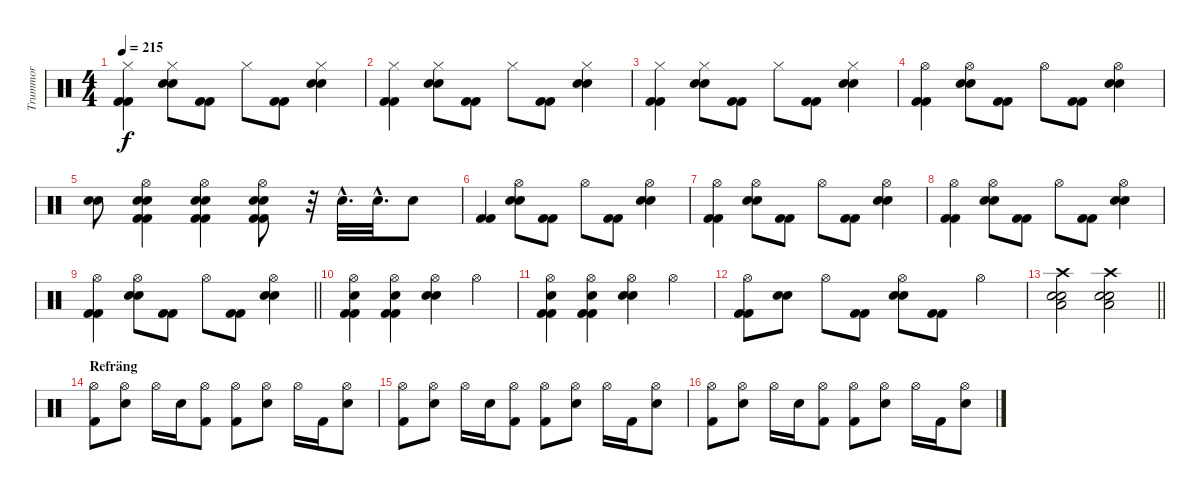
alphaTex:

\track ("Trummor" "Trummor") {instrument percussion}
\staff {score}
\articulation defaults
\ts (4 4)
\tempo 215
\clef neutral
\ks c
("Hi-Hat (closed)" "Kick (hit) 2" "Kick (hit) 2").4{dy f} ("Hi-Hat (closed)" "Electric Snare (hit)" "Electric Snare (hit)").8 ("Kick (hit) 2" "Kick (hit) 2").8 "Hi-Hat (closed)".8 ("Kick (hit) 2" "Kick (hit) 2").8 ("Hi-Hat (closed)" "Electric Snare (hit)" "Electric Snare (hit)").4 |
("Hi-Hat (closed)" "Kick (hit) 2" "Kick (hit) 2").4 ("Hi-Hat (closed)" "Electric Snare (hit)" "Electric Snare (hit)").8 ("Kick (hit) 2" "Kick (hit) 2").8 "Hi-Hat (closed)".8 ("Kick (hit) 2" "Kick (hit) 2").8 ("Hi-Hat (closed)" "Electric Snare (hit)" "Electric Snare (hit)").4 |
("Hi-Hat (closed)" "Kick (hit) 2" "Kick (hit) 2").4 ("Hi-Hat (closed)" "Electric Snare (hit)" "Electric Snare (hit)").8 ("Kick (hit) 2" "Kick (hit) 2").8 "Hi-Hat (closed)".8 ("Kick (hit) 2" "Kick (hit) 2").8 ("Hi-Hat (closed)" "Electric Snare (hit)" "Electric Snare (hit)").4 |
("Hi-Hat (open)" "Kick (hit) 2" "Kick (hit) 2").4 ("Hi-Hat (open)" "Electric Snare (hit)" "Electric Snare (hit)").8 ("Kick (hit) 2" "Kick (hit) 2").8 "Hi-Hat (open)".8 ("Kick (hit) 2" "Kick (hit) 2").8 ("Hi-Hat (open)" "Electric Snare (hit)" "Electric Snare (hit)").4 |
("Electric Snare (hit)" "Electric Snare (hit)").8 ("Hi-Hat (open)" "Electric Snare (hit)" "Electric Snare (hit)" "Kick (hit) 2" "Kick (hit) 2").4 ("Hi-Hat (open)" "Electric Snare (hit)" "Electric Snare (hit)" "Kick (hit) 2" "Kick (hit) 2").4 ("Hi-Hat (open)" "Electric Snare (hit)" "Electric Snare (hit)" "Kick (hit) 2" "Kick (hit) 2").8 r.32 "Electric Snare (hit)"{hac}.32{d} "Electric Snare (hit)"{hac}.32{d} "Electric Snare (hit)".8 |
("Kick (hit) 2" "Kick (hit) 2").4 ("Hi-Hat (open)" "Electric Snare (hit)" "Electric Snare (hit)").8 ("Kick (hit) 2" "Kick (hit) 2").8 "Hi-Hat (open)".8 ("Kick (hit) 2" "Kick (hit) 2").8 ("Hi-Hat (open)" "Electric Snare (hit)" "Electric Snare (hit)").4 |
("Hi-Hat (open)" "Kick (hit) 2" "Kick (hit) 2").4 ("Hi-Hat (open)" "Electric Snare (hit)" "Electric Snare (hit)").8 ("Kick (hit) 2" "Kick (hit) 2").8 "Hi-Hat (open)".8 ("Kick (hit) 2" "Kick (hit) 2").8 ("Hi-Hat (open)" "Electric Snare (hit)" "Electric Snare (hit)").4 |
("Hi-Hat (open)" "Kick (hit) 2" "Kick (hit) 2").4 ("Hi-Hat (open)" "Electric Snare (hit)" "Electric Snare (hit)").8 ("Kick (hit) 2" "Kick (hit) 2").8 "Hi-Hat (open)".8 ("Kick (hit) 2" "Kick (hit) 2").8 ("Hi-Hat (open)" "Electric Snare (hit)" "Electric Snare (hit)").4 |
\barLineRight lightlight
("Hi-Hat (open)" "Kick (hit) 2" "Kick (hit) 2").4 ("Hi-Hat (open)" "Electric Snare (hit)" "Electric Snare (hit)").8 ("Kick (hit) 2" "Kick (hit) 2").8 "Hi-Hat (open)".8 ("Kick (hit) 2" "Kick (hit) 2").8 ("Hi-Hat (open)" "Electric Snare (hit)" "Electric Snare (hit)").4 |
("Hi-Hat (open)" "Electric Snare (hit)" "Kick (hit) 2" "Kick (hit) 2").4 ("Hi-Hat (open)" "Electric Snare (hit)" "Kick (hit) 2" "Kick (hit) 2").4 ("Hi-Hat (open)" "Electric Snare (hit)" "Electric Snare (hit)").4 "Hi-Hat (open)".4 |
("Hi-Hat (open)" "Electric Snare (hit)" "Kick (hit) 2" "Kick (hit) 2").4 ("Hi-Hat (open)" "Electric Snare (hit)" "Kick (hit) 2" "Kick (hit) 2").4 ("Hi-Hat (open)" "Electric Snare (hit)" "Electric Snare (hit)").4 "Hi-Hat (open)".4 |
("Hi-Hat (open)" "Kick (hit) 2" "Kick (hit) 2").8 ("Electric Snare (hit)" "Electric Snare (hit)").8 "Hi-Hat (open)".8 ("Kick (hit) 2" "Kick (hit) 2").8 ("Hi-Hat (open)" "Electric Snare (hit)" "Electric Snare (hit)").8 ("Kick (hit) 2" "Kick (hit) 2").8 "Hi-Hat (open)".4 |
\barLineRight lightlight
("Low Tom (hit)" "Electric Snare (hit)" "Electric Snare (hit)" "Crash high (hit)").2 ("Low Tom (hit)" "Electric Snare (hit)" "Electric Snare (hit)" "Crash high (hit)").2 |
\section ("" "Refräng")
("Hi-Hat (open)" "Kick (hit) 2").8 ("Hi-Hat (open)" "Electric Snare (hit)").8 "Hi-Hat (open)".16 "Electric Snare (hit)".16 ("Hi-Hat (open)" "Kick (hit) 2").8 ("Hi-Hat (open)" "Kick (hit) 2").8 ("Hi-Hat (open)" "Electric Snare (hit)").8 "Hi-Hat (open)".16 "Kick (hit) 2".16 ("Hi-Hat (open)" "Electric Snare (hit)").8 |
("Hi-Hat (open)" "Kick (hit) 2").8 ("Hi-Hat (open)" "Electric Snare (hit)").8 "Hi-Hat (open)".16 "Electric Snare (hit)".16 ("Hi-Hat (open)" "Kick (hit) 2").8 ("Hi-Hat (open)" "Kick (hit) 2").8 ("Hi-Hat (open)" "Electric Snare (hit)").8 "Hi-Hat (open)".16 "Kick (hit) 2".16 ("Hi-Hat (open)" "Electric Snare (hit)").8 |
("Hi-Hat (open)" "Kick (hit) 2").8 ("Hi-Hat (open)" "Electric Snare (hit)").8 "Hi-Hat (open)".16 "Electric Snare (hit)".16 ("Hi-Hat (open)" "Kick (hit) 2").8 ("Hi-Hat (open)" "Kick (hit) 2").8 ("Hi-Hat (open)" "Electric Snare (hit)").8 "Hi-Hat (open)".16 "Kick (hit) 2".16 ("Hi-Hat (open)" "Electric Snare (hit)").8
